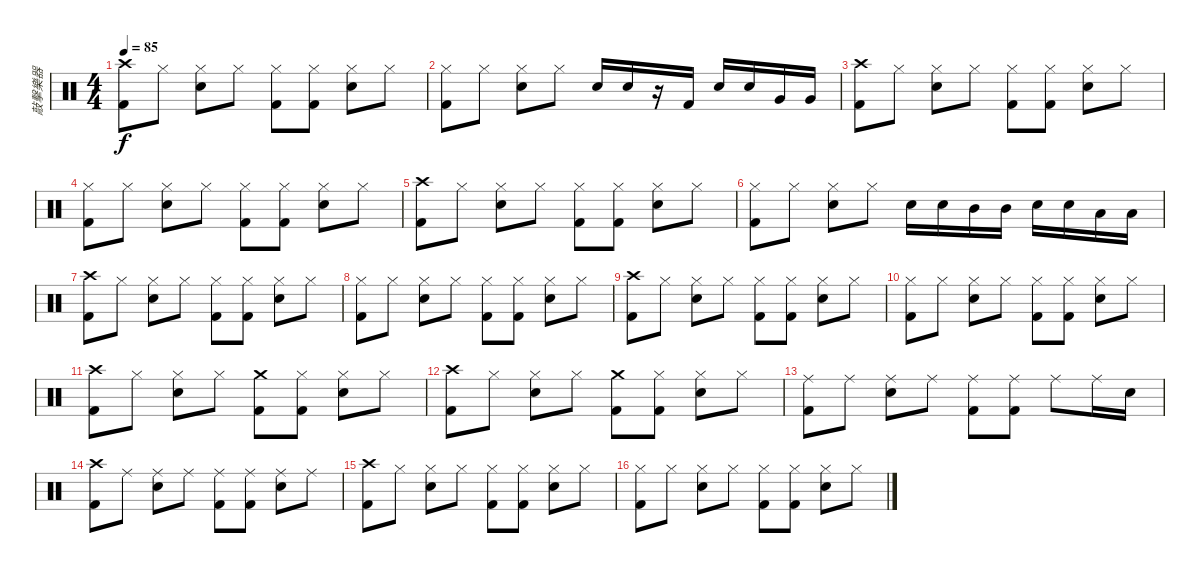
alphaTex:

\track ("敲擊樂器" "敲擊樂器") {instrument percussion}
\staff {score}
\articulation defaults
\ts (4 4)
\tempo 85
\clef neutral
\ks c
("Crash high (hit)" "Kick (hit) 2").8{dy f} "Hi-Hat (closed)".8 ("Hi-Hat (closed)" "Snare (hit) 2").8 "Hi-Hat (closed)".8 ("Hi-Hat (closed)" "Kick (hit) 2").8 ("Hi-Hat (closed)" "Kick (hit) 2").8 ("Hi-Hat (closed)" "Snare (hit) 2").8 "Hi-Hat (closed)".8 |
("Hi-Hat (closed)" "Kick (hit) 2").8 "Hi-Hat (closed)".8 ("Hi-Hat (closed)" "Snare (hit) 2").8 "Hi-Hat (closed)".8 "Snare (hit) 2".16 "Snare (hit) 2".16 r.16 "Kick (hit) 2".16 "Snare (hit) 2".16 "Snare (hit) 2".16 "Very Low Tom (hit)".16 "Very Low Tom (hit)".16 |
("Crash high (hit)" "Kick (hit) 2").8 "Hi-Hat (closed)".8 ("Hi-Hat (closed)" "Snare (hit) 2").8 "Hi-Hat (closed)".8 ("Hi-Hat (closed)" "Kick (hit) 2").8 ("Hi-Hat (closed)" "Kick (hit) 2").8 ("Hi-Hat (closed)" "Snare (hit) 2").8 "Hi-Hat (closed)".8 |
("Hi-Hat (closed)" "Kick (hit) 2").8 "Hi-Hat (closed)".8 ("Hi-Hat (closed)" "Snare (hit) 2").8 "Hi-Hat (closed)".8 ("Hi-Hat (closed)" "Kick (hit) 2").8 ("Hi-Hat (closed)" "Kick (hit) 2").8 ("Hi-Hat (closed)" "Snare (hit) 2").8 "Hi-Hat (closed)".8 |
("Crash high (hit)" "Kick (hit) 2").8 "Hi-Hat (closed)".8 ("Hi-Hat (closed)" "Snare (hit) 2").8 "Hi-Hat (closed)".8 ("Hi-Hat (closed)" "Kick (hit) 2").8 ("Hi-Hat (closed)" "Kick (hit) 2").8 ("Hi-Hat (closed)" "Snare (hit) 2").8 "Hi-Hat (closed)".8 |
("Hi-Hat (closed)" "Kick (hit) 2").8 "Hi-Hat (closed)".8 ("Hi-Hat (closed)" "Snare (hit) 2").8 "Hi-Hat (closed)".8 "Snare (hit) 2".16 "Snare (hit) 2".16 "Mid Tom (hit)".16 "Mid Tom (hit)".16 "Snare (hit) 2".16 "Snare (hit) 2".16 "Low Tom (hit)".16 "Low Tom (hit)".16 |
("Crash high (hit)" "Kick (hit) 2").8 "Hi-Hat (closed)".8 ("Hi-Hat (closed)" "Snare (hit) 2").8 "Hi-Hat (closed)".8 ("Hi-Hat (closed)" "Kick (hit) 2").8 ("Hi-Hat (closed)" "Kick (hit) 2").8 ("Hi-Hat (closed)" "Snare (hit) 2").8 "Hi-Hat (closed)".8 |
("Hi-Hat (closed)" "Kick (hit) 2").8 "Hi-Hat (closed)".8 ("Hi-Hat (closed)" "Snare (hit) 2").8 "Hi-Hat (closed)".8 ("Hi-Hat (closed)" "Kick (hit) 2").8 ("Hi-Hat (closed)" "Kick (hit) 2").8 ("Hi-Hat (closed)" "Snare (hit) 2").8 "Hi-Hat (closed)".8 |
("Crash high (hit)" "Kick (hit) 2").8 "Hi-Hat (closed)".8 ("Hi-Hat (closed)" "Snare (hit) 2").8 "Hi-Hat (closed)".8 ("Hi-Hat (closed)" "Kick (hit) 2").8 ("Hi-Hat (closed)" "Kick (hit) 2").8 ("Hi-Hat (closed)" "Snare (hit) 2").8 "Hi-Hat (closed)".8 |
("Hi-Hat (closed)" "Kick (hit) 2").8 "Hi-Hat (closed)".8 ("Hi-Hat (closed)" "Snare (hit) 2").8 "Hi-Hat (closed)".8 ("Hi-Hat (closed)" "Kick (hit) 2").8 ("Hi-Hat (closed)" "Kick (hit) 2").8 ("Hi-Hat (closed)" "Snare (hit) 2").8 "Hi-Hat (closed)".8 |
("Crash high (hit)" "Kick (hit) 2").8 "Hi-Hat (closed)".8 ("Hi-Hat (closed)" "Snare (hit) 2").8 "Hi-Hat (closed)".8 ("Crash medium (hit)" "Kick (hit) 2").8 ("Hi-Hat (closed)" "Kick (hit) 2").8 ("Hi-Hat (closed)" "Snare (hit) 2").8 "Hi-Hat (closed)".8 |
("Crash high (hit)" "Kick (hit) 2").8 "Hi-Hat (closed)".8 ("Hi-Hat (closed)" "Snare (hit) 2").8 "Hi-Hat (closed)".8 ("Crash medium (hit)" "Kick (hit) 2").8 ("Hi-Hat (closed)" "Kick (hit) 2").8 ("Hi-Hat (closed)" "Snare (hit) 2").8 "Hi-Hat (closed)".8 |
("Ride (middle)" "Kick (hit) 2").8 "Ride (middle)".8 ("Ride (middle)" "Snare (hit) 2").8 "Ride (middle)".8 ("Ride (middle)" "Kick (hit) 2").8 ("Ride (middle)" "Kick (hit) 2").8 "Ride (middle)".8 "Ride (middle)".16 "Snare (hit) 2".16 |
("Crash high (hit)" "Kick (hit) 2").8 "Ride (middle)".8 ("Ride (middle)" "Snare (hit) 2").8 "Ride (middle)".8 ("Ride (middle)" "Kick (hit) 2").8 ("Ride (middle)" "Kick (hit) 2").8 ("Ride (middle)" "Snare (hit) 2").8 "Ride (middle)".8 |
("Crash high (hit)" "Kick (hit) 2").8 "Hi-Hat (closed)".8 ("Hi-Hat (closed)" "Snare (hit) 2").8 "Hi-Hat (closed)".8 ("Hi-Hat (closed)" "Kick (hit) 2").8 ("Hi-Hat (closed)" "Kick (hit) 2").8 ("Hi-Hat (closed)" "Snare (hit) 2").8 "Hi-Hat (closed)".8 |
("Hi-Hat (closed)" "Kick (hit) 2").8 "Hi-Hat (closed)".8 ("Hi-Hat (closed)" "Snare (hit) 2").8 "Hi-Hat (closed)".8 ("Hi-Hat (closed)" "Kick (hit) 2").8 ("Hi-Hat (closed)" "Kick (hit) 2").8 ("Hi-Hat (closed)" "Snare (hit) 2").8 "Hi-Hat (closed)".8
